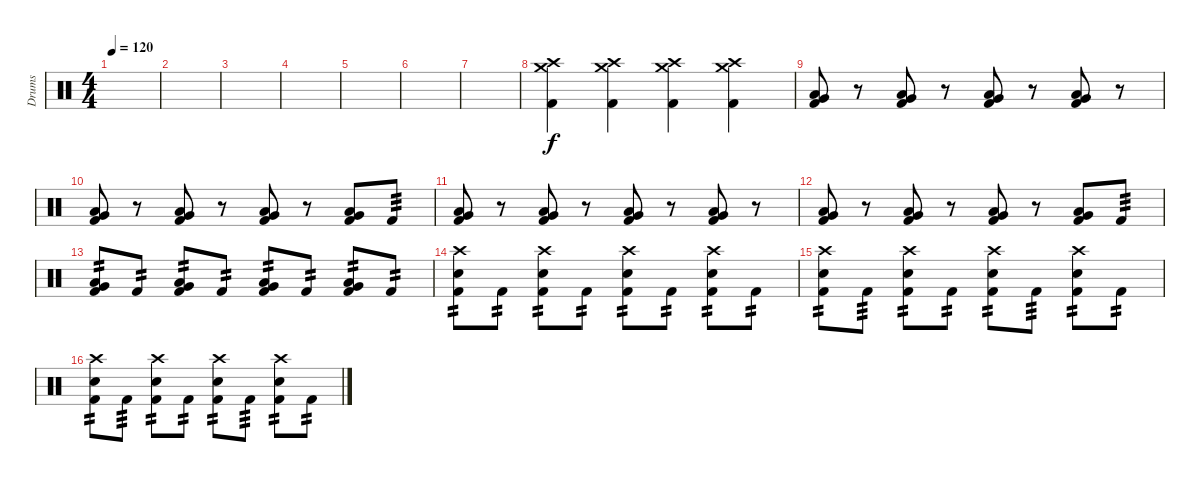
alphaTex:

\track ("Drums" "Drums") {instrument percussion}
\staff {score}
\articulation defaults
\ts (4 4)
\tempo 120
\clef neutral
\ks c
|
|
|
|
|
|
|
("Crash medium (hit)" "Crash high (hit)" "Kick (hit) 2").4{volume 16} ("Crash medium (hit)" "Crash high (hit)" "Kick (hit) 2").4 ("Crash medium (hit)" "Crash high (hit)" "Kick (hit) 2").4 ("Crash medium (hit)" "Crash high (hit)" "Kick (hit) 2").4 |
("Very Low Tom (hit)" "Low Floor Tom (hit)" "Kick (hit) 2").8 r.8 ("Very Low Tom (hit)" "Low Floor Tom (hit)" "Kick (hit) 2").8 r.8 ("Very Low Tom (hit)" "Low Floor Tom (hit)" "Kick (hit) 2").8 r.8 ("Very Low Tom (hit)" "Low Floor Tom (hit)" "Kick (hit) 2").8 r.8 |
("Very Low Tom (hit)" "Low Floor Tom (hit)" "Kick (hit) 2").8 r.8 ("Very Low Tom (hit)" "Low Floor Tom (hit)" "Kick (hit) 2").8 r.8 ("Very Low Tom (hit)" "Low Floor Tom (hit)" "Kick (hit) 2").8 r.8 ("Very Low Tom (hit)" "Low Floor Tom (hit)" "Kick (hit) 2").8 "Kick (hit) 2".8{tp 3} |
("Very Low Tom (hit)" "Low Floor Tom (hit)" "Kick (hit) 2").8 r.8 ("Very Low Tom (hit)" "Low Floor Tom (hit)" "Kick (hit) 2").8 r.8 ("Very Low Tom (hit)" "Low Floor Tom (hit)" "Kick (hit) 2").8 r.8 ("Very Low Tom (hit)" "Low Floor Tom (hit)" "Kick (hit) 2").8 r.8 |
("Very Low Tom (hit)" "Low Floor Tom (hit)" "Kick (hit) 2").8 r.8 ("Very Low Tom (hit)" "Low Floor Tom (hit)" "Kick (hit) 2").8 r.8 ("Very Low Tom (hit)" "Low Floor Tom (hit)" "Kick (hit) 2").8 r.8 ("Very Low Tom (hit)" "Low Floor Tom (hit)" "Kick (hit) 2").8 "Kick (hit) 2".8{tp 3} |
("Very Low Tom (hit)" "Low Floor Tom (hit)" "Kick (hit) 2").8{tp 2} "Kick (hit) 2".8{tp 2} ("Very Low Tom (hit)" "Low Floor Tom (hit)" "Kick (hit) 2").8{tp 2} "Kick (hit) 2".8{tp 2} ("Very Low Tom (hit)" "Low Floor Tom (hit)" "Kick (hit) 2").8{tp 2} "Kick (hit) 2".8{tp 2} ("Very Low Tom (hit)" "Low Floor Tom (hit)" "Kick (hit) 2").8{tp 2} "Kick (hit) 2".8{tp 2} |
("Crash high (hit)" "Snare (hit) 2" "Kick (hit) 2").8{tp 2} "Kick (hit) 2".8{tp 2} ("Crash high (hit)" "Snare (hit) 2" "Kick (hit) 2").8{tp 2} "Kick (hit) 2".8{tp 2} ("Crash high (hit)" "Snare (hit) 2" "Kick (hit) 2").8{tp 2} "Kick (hit) 2".8{tp 2} ("Crash high (hit)" "Snare (hit) 2" "Kick (hit) 2").8{tp 2} "Kick (hit) 2".8{tp 2} |
("Crash high (hit)" "Snare (hit) 2" "Kick (hit) 2").8{tp 2} "Kick (hit) 2".8{tp 3} ("Crash high (hit)" "Snare (hit) 2" "Kick (hit) 2").8{tp 2} "Kick (hit) 2".8{tp 2} ("Crash high (hit)" "Snare (hit) 2" "Kick (hit) 2").8{tp 2} "Kick (hit) 2".8{tp 3} ("Crash high (hit)" "Snare (hit) 2" "Kick (hit) 2").8{tp 2} "Kick (hit) 2".8{tp 2} |
("Crash high (hit)" "Snare (hit) 2" "Kick (hit) 2").8{tp 2} "Kick (hit) 2".8{tp 3} ("Crash high (hit)" "Snare (hit) 2" "Kick (hit) 2").8{tp 2} "Kick (hit) 2".8{tp 2} ("Crash high (hit)" "Snare (hit) 2" "Kick (hit) 2").8{tp 2} "Kick (hit) 2".8{tp 3} ("Crash high (hit)" "Snare (hit) 2" "Kick (hit) 2").8{tp 2} "Kick (hit) 2".8{tp 2}
